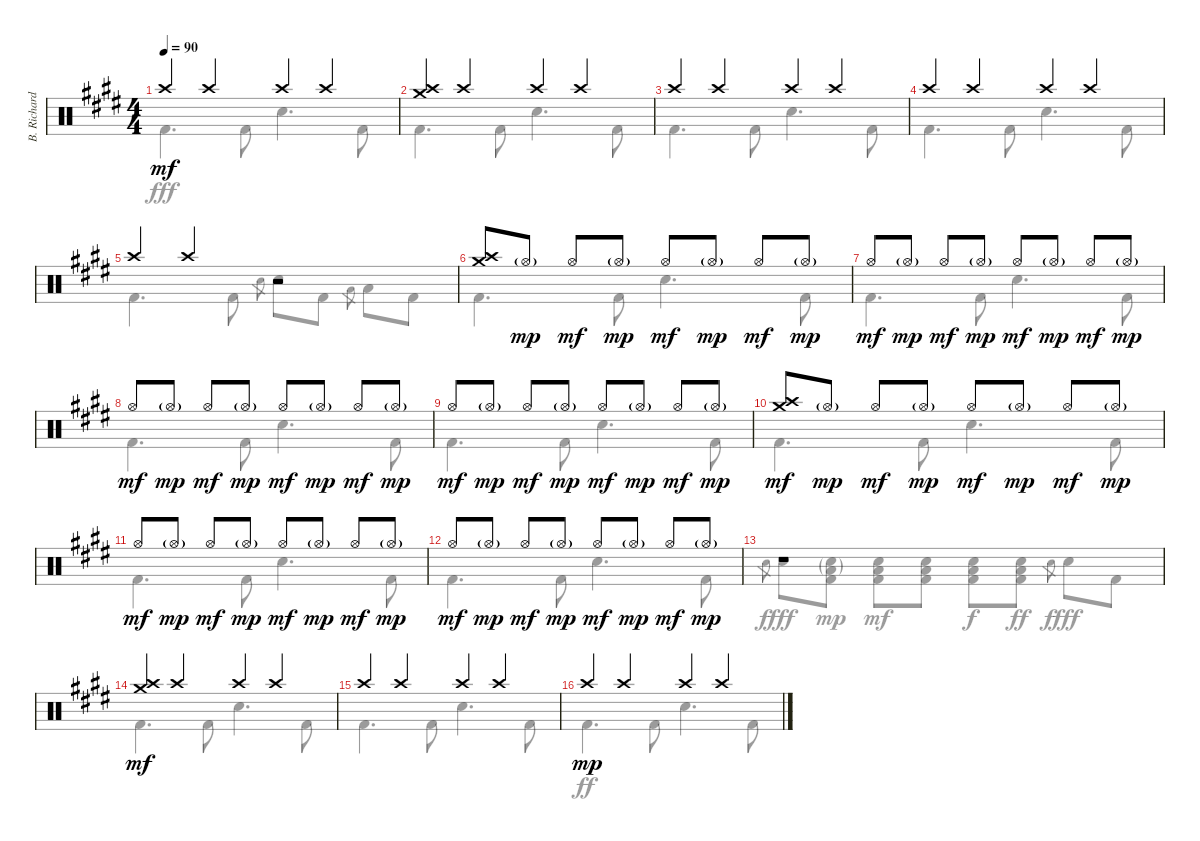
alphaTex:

\track ("B. Richardson Drums" "B. Richard") {instrument percussion}
\staff {score}
\articulation defaults
\voice
\ts (4 4)
\tempo 90
\clef neutral
\ks c#minor "Crash high (hit)".4{dy mf} "Crash high (hit)".4 "Crash high (hit)".4 "Crash high (hit)".4
|
("Crash high (hit)" "Crash medium (hit)").4 "Crash high (hit)".4 "Crash high (hit)".4 "Crash high (hit)".4 |
"Crash high (hit)".4 "Crash high (hit)".4 "Crash high (hit)".4 "Crash high (hit)".4 |
"Crash high (hit)".4 "Crash high (hit)".4 "Crash high (hit)".4 "Crash high (hit)".4 |
"Crash high (hit)".4 "Crash high (hit)".4 r.2 |
("Crash high (hit)" "Crash medium (hit)").8 "Hi-Hat (open)"{g}.8{dy mp} "Hi-Hat (open)".8{dy mf} "Hi-Hat (open)"{g}.8{dy mp} "Hi-Hat (open)".8{dy mf} "Hi-Hat (open)"{g}.8{dy mp} "Hi-Hat (open)".8{dy mf} "Hi-Hat (open)"{g}.8{dy mp} |
"Hi-Hat (open)".8{dy mf} "Hi-Hat (open)"{g}.8{dy mp} "Hi-Hat (open)".8{dy mf} "Hi-Hat (open)"{g}.8{dy mp} "Hi-Hat (open)".8{dy mf} "Hi-Hat (open)"{g}.8{dy mp} "Hi-Hat (open)".8{dy mf} "Hi-Hat (open)"{g}.8{dy mp} |
"Hi-Hat (open)".8{dy mf} "Hi-Hat (open)"{g}.8{dy mp} "Hi-Hat (open)".8{dy mf} "Hi-Hat (open)"{g}.8{dy mp} "Hi-Hat (open)".8{dy mf} "Hi-Hat (open)"{g}.8{dy mp} "Hi-Hat (open)".8{dy mf} "Hi-Hat (open)"{g}.8{dy mp} |
"Hi-Hat (open)".8{dy mf} "Hi-Hat (open)"{g}.8{dy mp} "Hi-Hat (open)".8{dy mf} "Hi-Hat (open)"{g}.8{dy mp} "Hi-Hat (open)".8{dy mf} "Hi-Hat (open)"{g}.8{dy mp} "Hi-Hat (open)".8{dy mf} "Hi-Hat (open)"{g}.8{dy mp} |
("Crash high (hit)" "Crash medium (hit)").8{dy mf} "Hi-Hat (open)"{g}.8{dy mp} "Hi-Hat (open)".8{dy mf} "Hi-Hat (open)"{g}.8{dy mp} "Hi-Hat (open)".8{dy mf} "Hi-Hat (open)"{g}.8{dy mp} "Hi-Hat (open)".8{dy mf} "Hi-Hat (open)"{g}.8{dy mp} |
"Hi-Hat (open)".8{dy mf} "Hi-Hat (open)"{g}.8{dy mp} "Hi-Hat (open)".8{dy mf} "Hi-Hat (open)"{g}.8{dy mp} "Hi-Hat (open)".8{dy mf} "Hi-Hat (open)"{g}.8{dy mp} "Hi-Hat (open)".8{dy mf} "Hi-Hat (open)"{g}.8{dy mp} |
"Hi-Hat (open)".8{dy mf} "Hi-Hat (open)"{g}.8{dy mp} "Hi-Hat (open)".8{dy mf} "Hi-Hat (open)"{g}.8{dy mp} "Hi-Hat (open)".8{dy mf} "Hi-Hat (open)"{g}.8{dy mp} "Hi-Hat (open)".8{dy mf} "Hi-Hat (open)"{g}.8{dy mp} |
r.1 |
("Crash high (hit)" "Crash medium (hit)").4{dy mf} "Crash high (hit)".4 "Crash high (hit)".4 "Crash high (hit)".4 |
"Crash high (hit)".4 "Crash high (hit)".4 "Crash high (hit)".4 "Crash high (hit)".4 |
"Crash high (hit)".4{dy mp} "Crash high (hit)".4 "Crash high (hit)".4 "Crash high (hit)".4
\voice
\clef neutral
\ottava regular
\simile none
\ks c#minor "Kick (hit) 2".4{d dy fff} "Kick (hit) 2".8 "Electric Snare (hit)".4{d} "Kick (hit) 2".8
|
"Kick (hit) 2".4{d} "Kick (hit) 2".8 "Electric Snare (hit)".4{d} "Kick (hit) 2".8 |
"Kick (hit) 2".4{d} "Kick (hit) 2".8 "Electric Snare (hit)".4{d} "Kick (hit) 2".8 |
"Kick (hit) 2".4{d} "Kick (hit) 2".8 "Electric Snare (hit)".4{d} "Kick (hit) 2".8 |
"Kick (hit) 2".4{d} "Kick (hit) 2".8 "Electric Snare (hit)".8{gr} "Electric Snare (hit)".8 "Kick (hit) 2".8 "Low Tom (hit)".8{gr} "Low Tom (hit)".8 "Kick (hit) 2".8 |
"Kick (hit) 2".4{d} "Kick (hit) 2".8 "Electric Snare (hit)".4{d} "Kick (hit) 2".8 |
"Kick (hit) 2".4{d} "Kick (hit) 2".8 "Electric Snare (hit)".4{d} "Kick (hit) 2".8 |
"Kick (hit) 2".4{d} "Kick (hit) 2".8 "Electric Snare (hit)".4{d} "Kick (hit) 2".8 |
"Kick (hit) 2".4{d} "Kick (hit) 2".8 "Electric Snare (hit)".4{d} "Kick (hit) 2".8 |
"Kick (hit) 2".4{d} "Kick (hit) 2".8 "Electric Snare (hit)".4{d} "Kick (hit) 2".8 |
"Kick (hit) 2".4{d} "Kick (hit) 2".8 "Electric Snare (hit)".4{d} "Kick (hit) 2".8 |
"Kick (hit) 2".4{d} "Kick (hit) 2".8 "Electric Snare (hit)".4{d} "Kick (hit) 2".8 |
"Electric Snare (hit)".8{gr dy f} "Electric Snare (hit)".8{dy fff} ("Electric Snare (hit)"{g} "Low Tom (hit)"{g} "Kick (hit) 2").8{dy mp} ("Electric Snare (hit)" "Low Tom (hit)" "Kick (hit) 2").8{dy mf} ("Electric Snare (hit)" "Low Tom (hit)" "Kick (hit) 2").8 ("Electric Snare (hit)" "Low Tom (hit)" "Kick (hit) 2").8{dy f} ("Electric Snare (hit)" "Low Tom (hit)" "Kick (hit) 2").8{dy ff} "Electric Snare (hit)".8{gr dy f} "Electric Snare (hit)".8{dy fff} "Kick (hit) 2".8 |
"Kick (hit) 2".4{d} "Kick (hit) 2".8 "Electric Snare (hit)".4{d} "Kick (hit) 2".8 |
"Kick (hit) 2".4{d} "Kick (hit) 2".8 "Electric Snare (hit)".4{d} "Kick (hit) 2".8 |
"Kick (hit) 2".4{d dy ff} "Kick (hit) 2".8 "Electric Snare (hit)".4{d} "Kick (hit) 2".8
